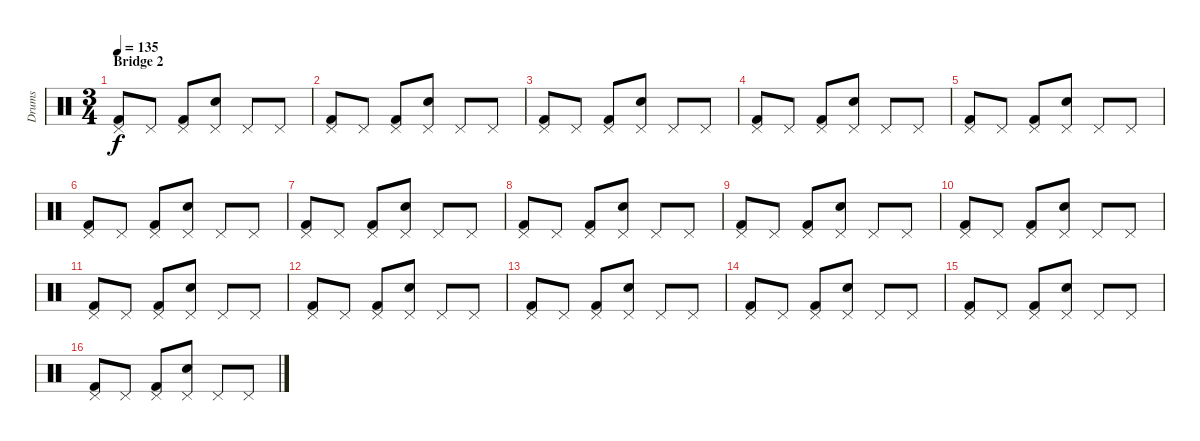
\track ("Drums" "Drums") {instrument percussion}
\staff {score}
\articulation defaults
\ts (3 4)
\section ("" "Bridge 2")
\tempo 135
\clef neutral
\ks c
("Pedal Hi-Hat (hit)" "Kick (hit) 2").8{dy f} "Pedal Hi-Hat (hit)".8 ("Pedal Hi-Hat (hit)" "Kick (hit) 2").8 ("Pedal Hi-Hat (hit)" "Snare (hit) 2").8 "Pedal Hi-Hat (hit)".8 "Pedal Hi-Hat (hit)".8 |
("Pedal Hi-Hat (hit)" "Kick (hit) 2").8 "Pedal Hi-Hat (hit)".8 ("Pedal Hi-Hat (hit)" "Kick (hit) 2").8 ("Pedal Hi-Hat (hit)" "Snare (hit) 2").8 "Pedal Hi-Hat (hit)".8 "Pedal Hi-Hat (hit)".8 |
("Pedal Hi-Hat (hit)" "Kick (hit) 2").8 "Pedal Hi-Hat (hit)".8 ("Pedal Hi-Hat (hit)" "Kick (hit) 2").8 ("Pedal Hi-Hat (hit)" "Snare (hit) 2").8 "Pedal Hi-Hat (hit)".8 "Pedal Hi-Hat (hit)".8 |
("Pedal Hi-Hat (hit)" "Kick (hit) 2").8 "Pedal Hi-Hat (hit)".8 ("Pedal Hi-Hat (hit)" "Kick (hit) 2").8 ("Pedal Hi-Hat (hit)" "Snare (hit) 2").8 "Pedal Hi-Hat (hit)".8 "Pedal Hi-Hat (hit)".8 |
("Pedal Hi-Hat (hit)" "Kick (hit) 2").8 "Pedal Hi-Hat (hit)".8 ("Pedal Hi-Hat (hit)" "Kick (hit) 2").8 ("Pedal Hi-Hat (hit)" "Snare (hit) 2").8 "Pedal Hi-Hat (hit)".8 "Pedal Hi-Hat (hit)".8 |
("Pedal Hi-Hat (hit)" "Kick (hit) 2").8 "Pedal Hi-Hat (hit)".8 ("Pedal Hi-Hat (hit)" "Kick (hit) 2").8 ("Pedal Hi-Hat (hit)" "Snare (hit) 2").8 "Pedal Hi-Hat (hit)".8 "Pedal Hi-Hat (hit)".8 |
("Pedal Hi-Hat (hit)" "Kick (hit) 2").8 "Pedal Hi-Hat (hit)".8 ("Pedal Hi-Hat (hit)" "Kick (hit) 2").8 ("Pedal Hi-Hat (hit)" "Snare (hit) 2").8 "Pedal Hi-Hat (hit)".8 "Pedal Hi-Hat (hit)".8 |
("Pedal Hi-Hat (hit)" "Kick (hit) 2").8 "Pedal Hi-Hat (hit)".8 ("Pedal Hi-Hat (hit)" "Kick (hit) 2").8 ("Pedal Hi-Hat (hit)" "Snare (hit) 2").8 "Pedal Hi-Hat (hit)".8 "Pedal Hi-Hat (hit)".8 |
("Pedal Hi-Hat (hit)" "Kick (hit) 2").8 "Pedal Hi-Hat (hit)".8 ("Pedal Hi-Hat (hit)" "Kick (hit) 2").8 ("Pedal Hi-Hat (hit)" "Snare (hit) 2").8 "Pedal Hi-Hat (hit)".8 "Pedal Hi-Hat (hit)".8 |
("Pedal Hi-Hat (hit)" "Kick (hit) 2").8 "Pedal Hi-Hat (hit)".8 ("Pedal Hi-Hat (hit)" "Kick (hit) 2").8 ("Pedal Hi-Hat (hit)" "Snare (hit) 2").8 "Pedal Hi-Hat (hit)".8 "Pedal Hi-Hat (hit)".8 |
("Pedal Hi-Hat (hit)" "Kick (hit) 2").8 "Pedal Hi-Hat (hit)".8 ("Pedal Hi-Hat (hit)" "Kick (hit) 2").8 ("Pedal Hi-Hat (hit)" "Snare (hit) 2").8 "Pedal Hi-Hat (hit)".8 "Pedal Hi-Hat (hit)".8 |
("Pedal Hi-Hat (hit)" "Kick (hit) 2").8 "Pedal Hi-Hat (hit)".8 ("Pedal Hi-Hat (hit)" "Kick (hit) 2").8 ("Pedal Hi-Hat (hit)" "Snare (hit) 2").8 "Pedal Hi-Hat (hit)".8 "Pedal Hi-Hat (hit)".8 |
("Pedal Hi-Hat (hit)" "Kick (hit) 2").8 "Pedal Hi-Hat (hit)".8 ("Pedal Hi-Hat (hit)" "Kick (hit) 2").8 ("Pedal Hi-Hat (hit)" "Snare (hit) 2").8 "Pedal Hi-Hat (hit)".8 "Pedal Hi-Hat (hit)".8 |
("Pedal Hi-Hat (hit)" "Kick (hit) 2").8 "Pedal Hi-Hat (hit)".8 ("Pedal Hi-Hat (hit)" "Kick (hit) 2").8 ("Pedal Hi-Hat (hit)" "Snare (hit) 2").8 "Pedal Hi-Hat (hit)".8 "Pedal Hi-Hat (hit)".8 |
("Pedal Hi-Hat (hit)" "Kick (hit) 2").8 "Pedal Hi-Hat (hit)".8 ("Pedal Hi-Hat (hit)" "Kick (hit) 2").8 ("Pedal Hi-Hat (hit)" "Snare (hit) 2").8 "Pedal Hi-Hat (hit)".8 "Pedal Hi-Hat (hit)".8 |
("Pedal Hi-Hat (hit)" "Kick (hit) 2").8 "Pedal Hi-Hat (hit)".8 ("Pedal Hi-Hat (hit)" "Kick (hit) 2").8 ("Pedal Hi-Hat (hit)" "Snare (hit) 2").8 "Pedal Hi-Hat (hit)".8 "Pedal Hi-Hat (hit)".8
